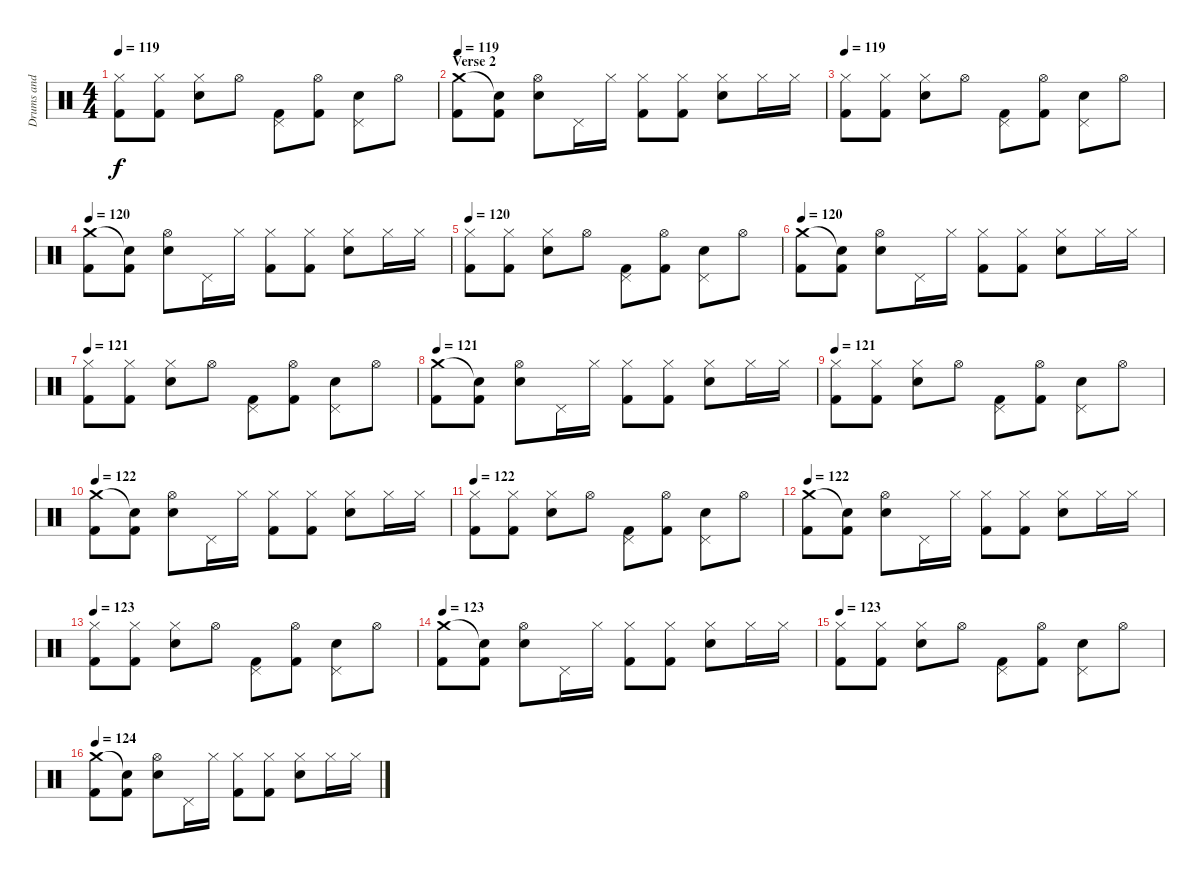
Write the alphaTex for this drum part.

\track ("Drums and Percussion" "Drums and ") {instrument percussion}
\staff {score}
\articulation defaults
\ts (4 4)
\tempo 119
\clef neutral
\ks c
("Hi-Hat (closed)" "Kick (hit) 2").8{dy f} ("Hi-Hat (closed)" "Kick (hit) 2").8 ("Hi-Hat (closed)" "Electric Snare (hit)").8 "Hi-Hat (open)".8 ("Pedal Hi-Hat (hit)" "Kick (hit) 2").8 ("Hi-Hat (open)" "Kick (hit) 2").8 ("Pedal Hi-Hat (hit)" "Electric Snare (hit)").8 "Hi-Hat (open)".8 |
\section ("" "Verse 2")
\tempo 119
("Crash medium (hit)" "Kick (hit) 2").8 ("Snare (hit)"{t} "Kick (hit) 2").8 ("Hi-Hat (open)" "Electric Snare (hit)").8 "Pedal Hi-Hat (hit)".16 "Hi-Hat (closed)".16 ("Hi-Hat (closed)" "Kick (hit) 2").8 ("Hi-Hat (closed)" "Kick (hit) 2").8 ("Hi-Hat (closed)" "Electric Snare (hit)").8 "Hi-Hat (closed)".16 "Hi-Hat (closed)".16 |
\tempo 119
("Hi-Hat (closed)" "Kick (hit) 2").8 ("Hi-Hat (closed)" "Kick (hit) 2").8 ("Hi-Hat (closed)" "Electric Snare (hit)").8 "Hi-Hat (open)".8 ("Pedal Hi-Hat (hit)" "Kick (hit) 2").8 ("Hi-Hat (open)" "Kick (hit) 2").8 ("Pedal Hi-Hat (hit)" "Electric Snare (hit)").8 "Hi-Hat (open)".8 |
\tempo 120
("Crash medium (hit)" "Kick (hit) 2").8 ("Snare (hit)"{t} "Kick (hit) 2").8 ("Hi-Hat (open)" "Electric Snare (hit)").8 "Pedal Hi-Hat (hit)".16 "Hi-Hat (closed)".16 ("Hi-Hat (closed)" "Kick (hit) 2").8 ("Hi-Hat (closed)" "Kick (hit) 2").8 ("Hi-Hat (closed)" "Electric Snare (hit)").8 "Hi-Hat (closed)".16 "Hi-Hat (closed)".16 |
\tempo 120
("Hi-Hat (closed)" "Kick (hit) 2").8 ("Hi-Hat (closed)" "Kick (hit) 2").8 ("Hi-Hat (closed)" "Electric Snare (hit)").8 "Hi-Hat (open)".8 ("Pedal Hi-Hat (hit)" "Kick (hit) 2").8 ("Hi-Hat (open)" "Kick (hit) 2").8 ("Pedal Hi-Hat (hit)" "Electric Snare (hit)").8 "Hi-Hat (open)".8 |
\tempo 120
("Crash medium (hit)" "Kick (hit) 2").8 ("Snare (hit)"{t} "Kick (hit) 2").8 ("Hi-Hat (open)" "Electric Snare (hit)").8 "Pedal Hi-Hat (hit)".16 "Hi-Hat (closed)".16 ("Hi-Hat (closed)" "Kick (hit) 2").8 ("Hi-Hat (closed)" "Kick (hit) 2").8 ("Hi-Hat (closed)" "Electric Snare (hit)").8 "Hi-Hat (closed)".16 "Hi-Hat (closed)".16 |
\tempo 121
("Hi-Hat (closed)" "Kick (hit) 2").8 ("Hi-Hat (closed)" "Kick (hit) 2").8 ("Hi-Hat (closed)" "Electric Snare (hit)").8 "Hi-Hat (open)".8 ("Pedal Hi-Hat (hit)" "Kick (hit) 2").8 ("Hi-Hat (open)" "Kick (hit) 2").8 ("Pedal Hi-Hat (hit)" "Electric Snare (hit)").8 "Hi-Hat (open)".8 |
\tempo 121
("Crash medium (hit)" "Kick (hit) 2").8 ("Snare (hit)"{t} "Kick (hit) 2").8 ("Hi-Hat (open)" "Electric Snare (hit)").8 "Pedal Hi-Hat (hit)".16 "Hi-Hat (closed)".16 ("Hi-Hat (closed)" "Kick (hit) 2").8 ("Hi-Hat (closed)" "Kick (hit) 2").8 ("Hi-Hat (closed)" "Electric Snare (hit)").8 "Hi-Hat (closed)".16 "Hi-Hat (closed)".16 |
\tempo 121
("Hi-Hat (closed)" "Kick (hit) 2").8 ("Hi-Hat (closed)" "Kick (hit) 2").8 ("Hi-Hat (closed)" "Electric Snare (hit)").8 "Hi-Hat (open)".8 ("Pedal Hi-Hat (hit)" "Kick (hit) 2").8 ("Hi-Hat (open)" "Kick (hit) 2").8 ("Pedal Hi-Hat (hit)" "Electric Snare (hit)").8 "Hi-Hat (open)".8 |
\tempo 122
("Crash medium (hit)" "Kick (hit) 2").8 ("Snare (hit)"{t} "Kick (hit) 2").8 ("Hi-Hat (open)" "Electric Snare (hit)").8 "Pedal Hi-Hat (hit)".16 "Hi-Hat (closed)".16 ("Hi-Hat (closed)" "Kick (hit) 2").8 ("Hi-Hat (closed)" "Kick (hit) 2").8 ("Hi-Hat (closed)" "Electric Snare (hit)").8 "Hi-Hat (closed)".16 "Hi-Hat (closed)".16 |
\tempo 122
("Hi-Hat (closed)" "Kick (hit) 2").8 ("Hi-Hat (closed)" "Kick (hit) 2").8 ("Hi-Hat (closed)" "Electric Snare (hit)").8 "Hi-Hat (open)".8 ("Pedal Hi-Hat (hit)" "Kick (hit) 2").8 ("Hi-Hat (open)" "Kick (hit) 2").8 ("Pedal Hi-Hat (hit)" "Electric Snare (hit)").8 "Hi-Hat (open)".8 |
\tempo 122
("Crash medium (hit)" "Kick (hit) 2").8 ("Snare (hit)"{t} "Kick (hit) 2").8 ("Hi-Hat (open)" "Electric Snare (hit)").8 "Pedal Hi-Hat (hit)".16 "Hi-Hat (closed)".16 ("Hi-Hat (closed)" "Kick (hit) 2").8 ("Hi-Hat (closed)" "Kick (hit) 2").8 ("Hi-Hat (closed)" "Electric Snare (hit)").8 "Hi-Hat (closed)".16 "Hi-Hat (closed)".16 |
\tempo 123
("Hi-Hat (closed)" "Kick (hit) 2").8 ("Hi-Hat (closed)" "Kick (hit) 2").8 ("Hi-Hat (closed)" "Electric Snare (hit)").8 "Hi-Hat (open)".8 ("Pedal Hi-Hat (hit)" "Kick (hit) 2").8 ("Hi-Hat (open)" "Kick (hit) 2").8 ("Pedal Hi-Hat (hit)" "Electric Snare (hit)").8 "Hi-Hat (open)".8 |
\tempo 123
("Crash medium (hit)" "Kick (hit) 2").8 ("Snare (hit)"{t} "Kick (hit) 2").8 ("Hi-Hat (open)" "Electric Snare (hit)").8 "Pedal Hi-Hat (hit)".16 "Hi-Hat (closed)".16 ("Hi-Hat (closed)" "Kick (hit) 2").8 ("Hi-Hat (closed)" "Kick (hit) 2").8 ("Hi-Hat (closed)" "Electric Snare (hit)").8 "Hi-Hat (closed)".16 "Hi-Hat (closed)".16 |
\tempo 123
("Hi-Hat (closed)" "Kick (hit) 2").8 ("Hi-Hat (closed)" "Kick (hit) 2").8 ("Hi-Hat (closed)" "Electric Snare (hit)").8 "Hi-Hat (open)".8 ("Pedal Hi-Hat (hit)" "Kick (hit) 2").8 ("Hi-Hat (open)" "Kick (hit) 2").8 ("Pedal Hi-Hat (hit)" "Electric Snare (hit)").8 "Hi-Hat (open)".8 |
\tempo 124
("Crash medium (hit)" "Kick (hit) 2").8 ("Snare (hit)"{t} "Kick (hit) 2").8 ("Hi-Hat (open)" "Electric Snare (hit)").8 "Pedal Hi-Hat (hit)".16 "Hi-Hat (closed)".16 ("Hi-Hat (closed)" "Kick (hit) 2").8 ("Hi-Hat (closed)" "Kick (hit) 2").8 ("Hi-Hat (closed)" "Electric Snare (hit)").8 "Hi-Hat (closed)".16 "Hi-Hat (closed)".16
